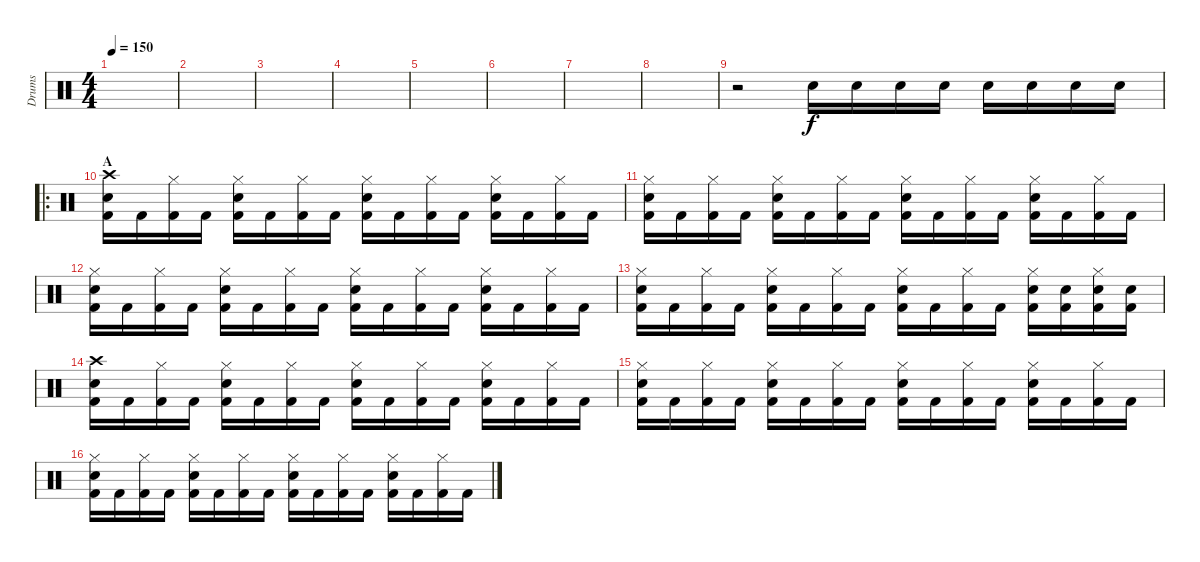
\track ("Drums" "Drums") {instrument percussion}
\staff {score}
\articulation defaults
\ts (4 4)
\tempo 150
\clef neutral
\ks c
|
\section ("" "")
|
|
|
|
|
|
|
r.2 "Snare (hit) 2".16 "Snare (hit) 2".16 "Snare (hit) 2".16 "Snare (hit) 2".16 "Snare (hit) 2".16 "Snare (hit) 2".16 "Snare (hit) 2".16 "Snare (hit) 2".16 |
\ro
\section ("" "A")
("Crash high (hit)" "Snare (hit) 2" "Kick (hit) 2").16 "Kick (hit) 2".16 ("Hi-Hat (closed)" "Kick (hit) 2").16 "Kick (hit) 2".16 ("Hi-Hat (closed)" "Snare (hit) 2" "Kick (hit) 2").16 "Kick (hit) 2".16 ("Hi-Hat (closed)" "Kick (hit) 2").16 "Kick (hit) 2".16 ("Hi-Hat (closed)" "Snare (hit) 2" "Kick (hit) 2").16 "Kick (hit) 2".16 ("Hi-Hat (closed)" "Kick (hit) 2").16 "Kick (hit) 2".16 ("Hi-Hat (closed)" "Snare (hit) 2" "Kick (hit) 2").16 "Kick (hit) 2".16 ("Hi-Hat (closed)" "Kick (hit) 2").16 "Kick (hit) 2".16 |
("Snare (hit) 2" "Hi-Hat (closed)" "Kick (hit) 2").16 "Kick (hit) 2".16 ("Hi-Hat (closed)" "Kick (hit) 2").16 "Kick (hit) 2".16 ("Snare (hit) 2" "Hi-Hat (closed)" "Kick (hit) 2").16 "Kick (hit) 2".16 ("Hi-Hat (closed)" "Kick (hit) 2").16 "Kick (hit) 2".16 ("Snare (hit) 2" "Hi-Hat (closed)" "Kick (hit) 2").16 "Kick (hit) 2".16 ("Hi-Hat (closed)" "Kick (hit) 2").16 "Kick (hit) 2".16 ("Snare (hit) 2" "Hi-Hat (closed)" "Kick (hit) 2").16 "Kick (hit) 2".16 ("Hi-Hat (closed)" "Kick (hit) 2").16 "Kick (hit) 2".16 |
("Snare (hit) 2" "Hi-Hat (closed)" "Kick (hit) 2").16 "Kick (hit) 2".16 ("Hi-Hat (closed)" "Kick (hit) 2").16 "Kick (hit) 2".16 ("Snare (hit) 2" "Hi-Hat (closed)" "Kick (hit) 2").16 "Kick (hit) 2".16 ("Hi-Hat (closed)" "Kick (hit) 2").16 "Kick (hit) 2".16 ("Snare (hit) 2" "Hi-Hat (closed)" "Kick (hit) 2").16 "Kick (hit) 2".16 ("Hi-Hat (closed)" "Kick (hit) 2").16 "Kick (hit) 2".16 ("Snare (hit) 2" "Hi-Hat (closed)" "Kick (hit) 2").16 "Kick (hit) 2".16 ("Hi-Hat (closed)" "Kick (hit) 2").16 "Kick (hit) 2".16 |
("Snare (hit) 2" "Hi-Hat (closed)" "Kick (hit) 2").16 "Kick (hit) 2".16 ("Hi-Hat (closed)" "Kick (hit) 2").16 "Kick (hit) 2".16 ("Snare (hit) 2" "Hi-Hat (closed)" "Kick (hit) 2").16 "Kick (hit) 2".16 ("Hi-Hat (closed)" "Kick (hit) 2").16 "Kick (hit) 2".16 ("Snare (hit) 2" "Hi-Hat (closed)" "Kick (hit) 2").16 "Kick (hit) 2".16 ("Hi-Hat (closed)" "Kick (hit) 2").16 "Kick (hit) 2".16 ("Snare (hit) 2" "Hi-Hat (closed)" "Kick (hit) 2").16 ("Snare (hit) 2" "Kick (hit) 2").16 ("Snare (hit) 2" "Hi-Hat (closed)" "Kick (hit) 2").16 ("Snare (hit) 2" "Kick (hit) 2").16 |
("Crash high (hit)" "Snare (hit) 2" "Kick (hit) 2").16 "Kick (hit) 2".16 ("Hi-Hat (closed)" "Kick (hit) 2").16 "Kick (hit) 2".16 ("Hi-Hat (closed)" "Snare (hit) 2" "Kick (hit) 2").16 "Kick (hit) 2".16 ("Hi-Hat (closed)" "Kick (hit) 2").16 "Kick (hit) 2".16 ("Hi-Hat (closed)" "Snare (hit) 2" "Kick (hit) 2").16 "Kick (hit) 2".16 ("Hi-Hat (closed)" "Kick (hit) 2").16 "Kick (hit) 2".16 ("Hi-Hat (closed)" "Snare (hit) 2" "Kick (hit) 2").16 "Kick (hit) 2".16 ("Hi-Hat (closed)" "Kick (hit) 2").16 "Kick (hit) 2".16 |
("Snare (hit) 2" "Hi-Hat (closed)" "Kick (hit) 2").16 "Kick (hit) 2".16 ("Hi-Hat (closed)" "Kick (hit) 2").16 "Kick (hit) 2".16 ("Snare (hit) 2" "Hi-Hat (closed)" "Kick (hit) 2").16 "Kick (hit) 2".16 ("Hi-Hat (closed)" "Kick (hit) 2").16 "Kick (hit) 2".16 ("Snare (hit) 2" "Hi-Hat (closed)" "Kick (hit) 2").16 "Kick (hit) 2".16 ("Hi-Hat (closed)" "Kick (hit) 2").16 "Kick (hit) 2".16 ("Snare (hit) 2" "Hi-Hat (closed)" "Kick (hit) 2").16 "Kick (hit) 2".16 ("Hi-Hat (closed)" "Kick (hit) 2").16 "Kick (hit) 2".16 |
("Snare (hit) 2" "Hi-Hat (closed)" "Kick (hit) 2").16 "Kick (hit) 2".16 ("Hi-Hat (closed)" "Kick (hit) 2").16 "Kick (hit) 2".16 ("Snare (hit) 2" "Hi-Hat (closed)" "Kick (hit) 2").16 "Kick (hit) 2".16 ("Hi-Hat (closed)" "Kick (hit) 2").16 "Kick (hit) 2".16 ("Snare (hit) 2" "Hi-Hat (closed)" "Kick (hit) 2").16 "Kick (hit) 2".16 ("Hi-Hat (closed)" "Kick (hit) 2").16 "Kick (hit) 2".16 ("Snare (hit) 2" "Hi-Hat (closed)" "Kick (hit) 2").16 "Kick (hit) 2".16 ("Hi-Hat (closed)" "Kick (hit) 2").16 "Kick (hit) 2".16
